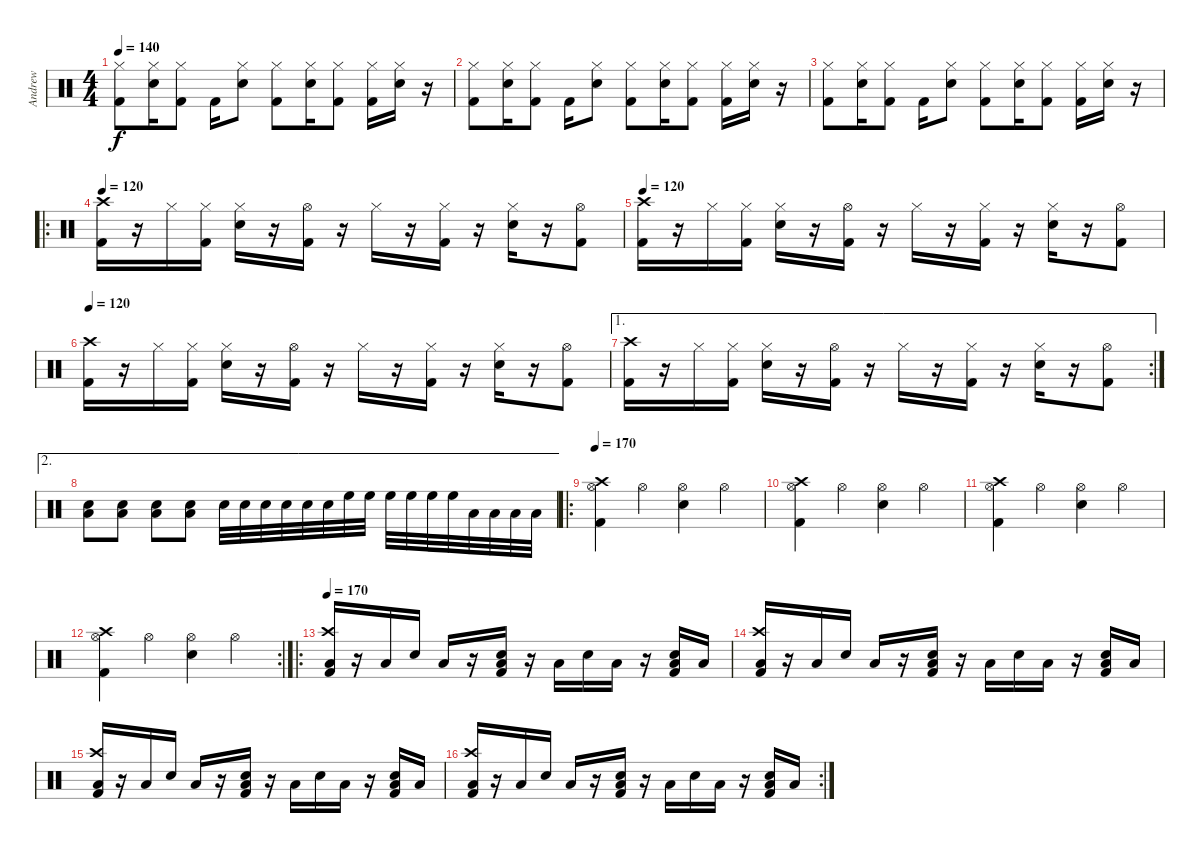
\track ("Andrew" "Andrew") {instrument percussion}
\staff {score}
\articulation defaults
\ts (4 4)
\tempo 140
\clef neutral
\ks c
("Hi-Hat (closed)" "Kick (hit) 2").8{dy f} ("Hi-Hat (closed)" "Snare (hit) 2").16 ("Hi-Hat (closed)" "Kick (hit) 2").8 "Kick (hit) 2".16 ("Hi-Hat (closed)" "Snare (hit) 2").8 ("Hi-Hat (closed)" "Kick (hit) 2").8 ("Hi-Hat (closed)" "Snare (hit) 2").16 ("Hi-Hat (closed)" "Kick (hit) 2").8 ("Hi-Hat (closed)" "Kick (hit) 2").16 ("Hi-Hat (closed)" "Snare (hit) 2").16 r.16 |
("Hi-Hat (closed)" "Kick (hit) 2").8 ("Hi-Hat (closed)" "Snare (hit) 2").16 ("Hi-Hat (closed)" "Kick (hit) 2").8 "Kick (hit) 2".16 ("Hi-Hat (closed)" "Snare (hit) 2").8 ("Hi-Hat (closed)" "Kick (hit) 2").8 ("Hi-Hat (closed)" "Snare (hit) 2").16 ("Hi-Hat (closed)" "Kick (hit) 2").8 ("Hi-Hat (closed)" "Kick (hit) 2").16 ("Hi-Hat (closed)" "Snare (hit) 2").16 r.16 |
("Hi-Hat (closed)" "Kick (hit) 2").8 ("Hi-Hat (closed)" "Snare (hit) 2").16 ("Hi-Hat (closed)" "Kick (hit) 2").8 "Kick (hit) 2".16 ("Hi-Hat (closed)" "Snare (hit) 2").8 ("Hi-Hat (closed)" "Kick (hit) 2").8 ("Hi-Hat (closed)" "Snare (hit) 2").16 ("Hi-Hat (closed)" "Kick (hit) 2").8 ("Hi-Hat (closed)" "Kick (hit) 2").16 ("Hi-Hat (closed)" "Snare (hit) 2").16 r.16 |
\ro
\tempo 120
("Kick (hit) 2" "Crash high (hit)").16 r.16 "Hi-Hat (closed)".16 ("Hi-Hat (closed)" "Kick (hit) 2").16 ("Hi-Hat (closed)" "Snare (hit) 2").16 r.16 ("Hi-Hat (open)" "Kick (hit) 2").16 r.16 "Hi-Hat (closed)".16 r.16 ("Hi-Hat (closed)" "Kick (hit) 2").16 r.16 ("Hi-Hat (closed)" "Snare (hit) 2").16 r.16 ("Hi-Hat (open)" "Kick (hit) 2").8 |
\tempo 120
("Kick (hit) 2" "Crash high (hit)").16 r.16 "Hi-Hat (closed)".16 ("Hi-Hat (closed)" "Kick (hit) 2").16 ("Hi-Hat (closed)" "Snare (hit) 2").16 r.16 ("Hi-Hat (open)" "Kick (hit) 2").16 r.16 "Hi-Hat (closed)".16 r.16 ("Hi-Hat (closed)" "Kick (hit) 2").16 r.16 ("Hi-Hat (closed)" "Snare (hit) 2").16 r.16 ("Hi-Hat (open)" "Kick (hit) 2").8 |
\tempo 120
("Kick (hit) 2" "Crash high (hit)").16 r.16 "Hi-Hat (closed)".16 ("Hi-Hat (closed)" "Kick (hit) 2").16 ("Hi-Hat (closed)" "Snare (hit) 2").16 r.16 ("Hi-Hat (open)" "Kick (hit) 2").16 r.16 "Hi-Hat (closed)".16 r.16 ("Hi-Hat (closed)" "Kick (hit) 2").16 r.16 ("Hi-Hat (closed)" "Snare (hit) 2").16 r.16 ("Hi-Hat (open)" "Kick (hit) 2").8 |
\ae 1
\rc 2
("Kick (hit) 2" "Crash high (hit)").16 r.16 "Hi-Hat (closed)".16 ("Hi-Hat (closed)" "Kick (hit) 2").16 ("Hi-Hat (closed)" "Snare (hit) 2").16 r.16 ("Hi-Hat (open)" "Kick (hit) 2").16 r.16 "Hi-Hat (closed)".16 r.16 ("Hi-Hat (closed)" "Kick (hit) 2").16 r.16 ("Hi-Hat (closed)" "Snare (hit) 2").16 r.16 ("Hi-Hat (open)" "Kick (hit) 2").8 |
\ae 2
("Snare (hit) 2" "Low Floor Tom (hit)").8 ("Snare (hit) 2" "Low Floor Tom (hit)").8 ("Snare (hit) 2" "Low Floor Tom (hit)").8 ("Snare (hit) 2" "Low Floor Tom (hit)").8 "Snare (hit) 2".32 "Snare (hit) 2".32 "Snare (hit) 2".32 "Snare (hit) 2".32 "Snare (hit) 2".32 "Snare (hit) 2".32 "High Floor Tom (hit)".32 "High Floor Tom (hit)".32 "High Floor Tom (hit)".32 "High Floor Tom (hit)".32 "High Floor Tom (hit)".32 "High Floor Tom (hit)".32 "Low Tom (hit)".32 "Low Tom (hit)".32 "Low Tom (hit)".32 "Low Tom (hit)".32 |
\ro
\tempo 170
("Hi-Hat (open)" "Kick (hit) 2" "Crash high (hit)").4 "Hi-Hat (open)".4 ("Hi-Hat (open)" "Snare (hit) 2").4 "Hi-Hat (open)".4 |
("Hi-Hat (open)" "Kick (hit) 2" "Crash high (hit)").4 "Hi-Hat (open)".4 ("Hi-Hat (open)" "Snare (hit) 2").4 "Hi-Hat (open)".4 |
("Hi-Hat (open)" "Kick (hit) 2" "Crash high (hit)").4 "Hi-Hat (open)".4 ("Hi-Hat (open)" "Snare (hit) 2").4 "Hi-Hat (open)".4 |
\rc 2
("Hi-Hat (open)" "Kick (hit) 2" "Crash high (hit)").4 "Hi-Hat (open)".4 ("Hi-Hat (open)" "Snare (hit) 2").4 "Hi-Hat (open)".4 |
\ro
\tempo 170
("Low Floor Tom (hit)" "Crash high (hit)" "Kick (hit) 2").16 r.16 "Low Floor Tom (hit)".16 "Snare (hit) 2".16 "Low Floor Tom (hit)".16 r.16 ("Snare (hit) 2" "Low Floor Tom (hit)" "Kick (hit) 2").16 r.16 "Low Floor Tom (hit)".16 "Snare (hit) 2".16 "Low Floor Tom (hit)".16 r.16 ("Low Floor Tom (hit)" "Snare (hit) 2" "Kick (hit) 2").16 "Low Floor Tom (hit)".16 |
("Low Floor Tom (hit)" "Crash high (hit)" "Kick (hit) 2").16 r.16 "Low Floor Tom (hit)".16 "Snare (hit) 2".16 "Low Floor Tom (hit)".16 r.16 ("Snare (hit) 2" "Low Floor Tom (hit)" "Kick (hit) 2").16 r.16 "Low Floor Tom (hit)".16 "Snare (hit) 2".16 "Low Floor Tom (hit)".16 r.16 ("Low Floor Tom (hit)" "Snare (hit) 2" "Kick (hit) 2").16 "Low Floor Tom (hit)".16 |
("Low Floor Tom (hit)" "Crash high (hit)" "Kick (hit) 2").16 r.16 "Low Floor Tom (hit)".16 "Snare (hit) 2".16 "Low Floor Tom (hit)".16 r.16 ("Snare (hit) 2" "Low Floor Tom (hit)" "Kick (hit) 2").16 r.16 "Low Floor Tom (hit)".16 "Snare (hit) 2".16 "Low Floor Tom (hit)".16 r.16 ("Low Floor Tom (hit)" "Snare (hit) 2" "Kick (hit) 2").16 "Low Floor Tom (hit)".16 |
\rc 2
("Low Floor Tom (hit)" "Crash high (hit)" "Kick (hit) 2").16 r.16 "Low Floor Tom (hit)".16 "Snare (hit) 2".16 "Low Floor Tom (hit)".16 r.16 ("Snare (hit) 2" "Low Floor Tom (hit)" "Kick (hit) 2").16 r.16 "Low Floor Tom (hit)".16 "Snare (hit) 2".16 "Low Floor Tom (hit)".16 r.16 ("Low Floor Tom (hit)" "Snare (hit) 2" "Kick (hit) 2").16 "Low Floor Tom (hit)".16
